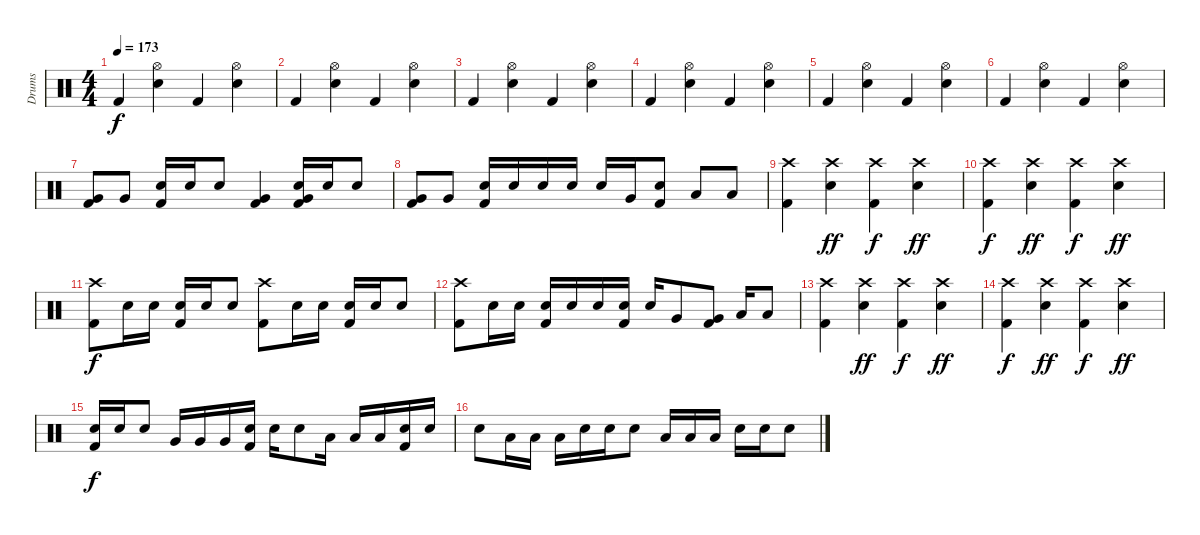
\track ("Drums" "Drums") {instrument percussion}
\staff {score}
\articulation defaults
\ts (4 4)
\tempo 173
\clef neutral
\ks c "Kick (hit) 2".4{dy f}
("Electric Snare (hit)" "Hi-Hat (open)").4 "Kick (hit) 2".4 ("Electric Snare (hit)" "Hi-Hat (open)").4 |
"Kick (hit) 2".4 ("Electric Snare (hit)" "Hi-Hat (open)").4 "Kick (hit) 2".4 ("Electric Snare (hit)" "Hi-Hat (open)").4 |
"Kick (hit) 2".4 ("Electric Snare (hit)" "Hi-Hat (open)").4 "Kick (hit) 2".4 ("Electric Snare (hit)" "Hi-Hat (open)").4 |
"Kick (hit) 2".4 ("Electric Snare (hit)" "Hi-Hat (open)").4 "Kick (hit) 2".4 ("Electric Snare (hit)" "Hi-Hat (open)").4 |
"Kick (hit) 2".4 ("Electric Snare (hit)" "Hi-Hat (open)").4 "Kick (hit) 2".4 ("Electric Snare (hit)" "Hi-Hat (open)").4 |
"Kick (hit) 2".4 ("Electric Snare (hit)" "Hi-Hat (open)").4 "Kick (hit) 2".4 ("Electric Snare (hit)" "Hi-Hat (open)").4 |
("Very Low Tom (hit)" "Kick (hit) 2").8 "Very Low Tom (hit)".8 ("Electric Snare (hit)" "Kick (hit) 2").16 "Electric Snare (hit)".16 "Electric Snare (hit)".8 ("Very Low Tom (hit)" "Kick (hit) 2").4 ("Very Low Tom (hit)" "Electric Snare (hit)" "Kick (hit) 2").16 "Electric Snare (hit)".16 "Electric Snare (hit)".8 |
("Very Low Tom (hit)" "Kick (hit) 2").8 "Very Low Tom (hit)".8 ("Electric Snare (hit)" "Kick (hit) 2").16 "Electric Snare (hit)".16 "Electric Snare (hit)".16 "Electric Snare (hit)".16 "Electric Snare (hit)".16 "Very Low Tom (hit)".16 ("Electric Snare (hit)" "Kick (hit) 2").8 "Low Tom (hit)".8 "Low Tom (hit)".8 |
("Crash high (hit)" "Kick (hit) 2").4 ("Crash high (hit)" "Electric Snare (hit)").4{dy ff} ("Crash high (hit)" "Kick (hit) 2").4{dy f} ("Crash high (hit)" "Electric Snare (hit)").4{dy ff} |
("Crash high (hit)" "Kick (hit) 2").4{dy f} ("Crash high (hit)" "Electric Snare (hit)").4{dy ff} ("Crash high (hit)" "Kick (hit) 2").4{dy f} ("Crash high (hit)" "Electric Snare (hit)").4{dy ff} |
("Crash high (hit)" "Kick (hit) 2").8{dy f} "Electric Snare (hit)".16 "Electric Snare (hit)".16 ("Electric Snare (hit)" "Kick (hit) 2").16 "Electric Snare (hit)".16 "Electric Snare (hit)".8 ("Crash high (hit)" "Kick (hit) 2").8 "Electric Snare (hit)".16 "Electric Snare (hit)".16 ("Electric Snare (hit)" "Kick (hit) 2").16 "Electric Snare (hit)".16 "Electric Snare (hit)".8 |
("Crash high (hit)" "Kick (hit) 2").8 "Electric Snare (hit)".16 "Electric Snare (hit)".16 ("Electric Snare (hit)" "Kick (hit) 2").16 "Electric Snare (hit)".16 "Electric Snare (hit)".16 ("Electric Snare (hit)" "Kick (hit) 2").16 "Electric Snare (hit)".16 "Very Low Tom (hit)".8 ("Very Low Tom (hit)" "Kick (hit) 2").8 "Low Tom (hit)".16 "Low Tom (hit)".8 |
("Crash high (hit)" "Kick (hit) 2").4 ("Crash high (hit)" "Electric Snare (hit)").4{dy ff} ("Crash high (hit)" "Kick (hit) 2").4{dy f} ("Crash high (hit)" "Electric Snare (hit)").4{dy ff} |
("Crash high (hit)" "Kick (hit) 2").4{dy f} ("Crash high (hit)" "Electric Snare (hit)").4{dy ff} ("Crash high (hit)" "Kick (hit) 2").4{dy f} ("Crash high (hit)" "Electric Snare (hit)").4{dy ff} |
("Electric Snare (hit)" "Kick (hit) 2").16{dy f} "Electric Snare (hit)".16 "Electric Snare (hit)".8 "Very Low Tom (hit)".16 "Very Low Tom (hit)".16 "Very Low Tom (hit)".16 ("Electric Snare (hit)" "Kick (hit) 2").16 "Electric Snare (hit)".16 "Electric Snare (hit)".8 "Low Tom (hit)".16 "Low Tom (hit)".16 "Low Tom (hit)".16 ("Electric Snare (hit)" "Kick (hit) 2").16 "Electric Snare (hit)".16 |
"Electric Snare (hit)".8 "Low Floor Tom (hit)".16 "Low Floor Tom (hit)".16 "Low Floor Tom (hit)".16 "Electric Snare (hit)".16 "Electric Snare (hit)".16 "Electric Snare (hit)".8 "Low Floor Tom (hit)".16 "Low Floor Tom (hit)".16 "Low Floor Tom (hit)".16 "Electric Snare (hit)".16 "Electric Snare (hit)".16 "Electric Snare (hit)".8
